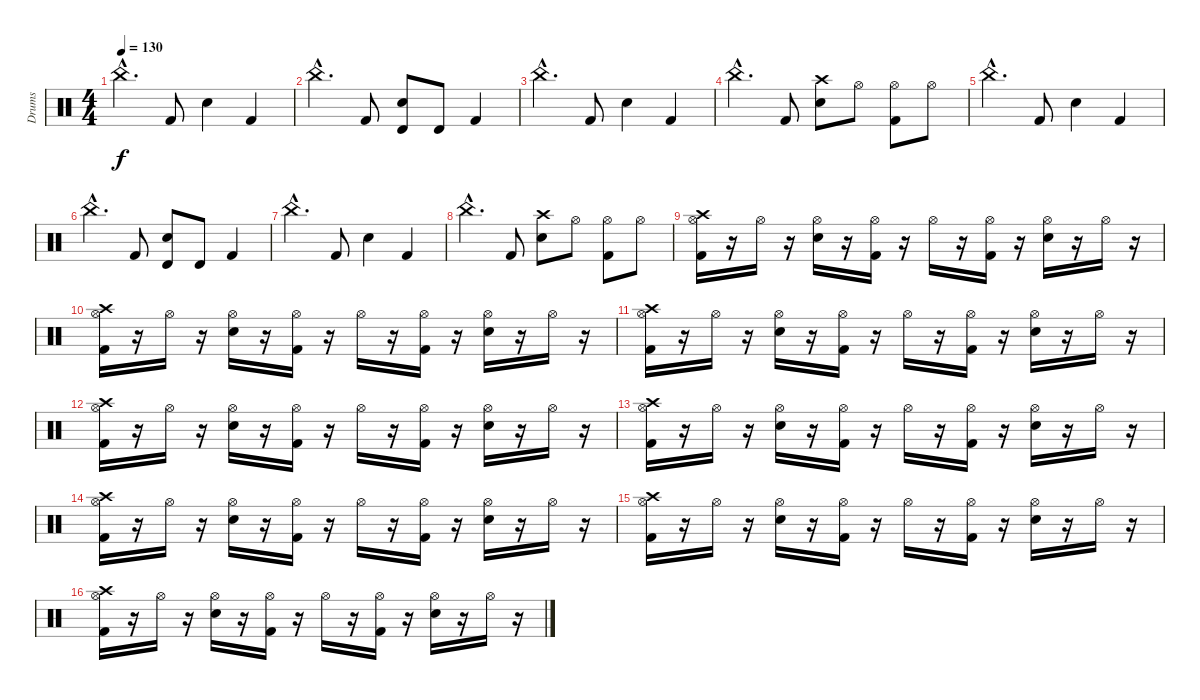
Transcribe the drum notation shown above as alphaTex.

\track ("Drums" "Drums") {instrument percussion}
\staff {score}
\articulation defaults
\ts (4 4)
\tempo 130
\clef neutral
\ks c "China (hit)"{hac}.4{d dy f} "Kick (hit) 2".8 "Snare (hit) 2".4 "Kick (hit) 2".4
|
"China (hit)"{hac}.4{d} "Kick (hit) 2".8 ("Timbale high (hit)" "Snare (hit) 2").8 "Timbale high (hit)".8 "Kick (hit) 2".4 |
"China (hit)"{hac}.4{d} "Kick (hit) 2".8 "Snare (hit) 2".4 "Kick (hit) 2".4 |
"China (hit)"{hac}.4{d} "Kick (hit) 2".8 ("Crash high (hit)" "Snare (hit) 2").8 "Hi-Hat (open)".8 ("Hi-Hat (open)" "Kick (hit) 2").8 "Hi-Hat (open)".8 |
"China (hit)"{hac}.4{d} "Kick (hit) 2".8 "Snare (hit) 2".4 "Kick (hit) 2".4 |
"China (hit)"{hac}.4{d} "Kick (hit) 2".8 ("Timbale high (hit)" "Snare (hit) 2").8 "Timbale high (hit)".8 "Kick (hit) 2".4 |
"China (hit)"{hac}.4{d} "Kick (hit) 2".8 "Snare (hit) 2".4 "Kick (hit) 2".4 |
"China (hit)"{hac}.4{d} "Kick (hit) 2".8 ("Crash high (hit)" "Snare (hit) 2").8 "Hi-Hat (open)".8 ("Hi-Hat (open)" "Kick (hit) 2").8 "Hi-Hat (open)".8 |
("Crash high (hit)" "Hi-Hat (open)" "Kick (hit) 2").16 r.16 "Hi-Hat (open)".16 r.16 ("Hi-Hat (open)" "Snare (hit) 2").16 r.16 ("Hi-Hat (open)" "Kick (hit) 2").16 r.16 "Hi-Hat (open)".16 r.16 ("Hi-Hat (open)" "Kick (hit) 2").16 r.16 ("Hi-Hat (open)" "Snare (hit) 2").16 r.16 "Hi-Hat (open)".16 r.16 |
("Crash high (hit)" "Hi-Hat (open)" "Kick (hit) 2").16 r.16 "Hi-Hat (open)".16 r.16 ("Hi-Hat (open)" "Snare (hit) 2").16 r.16 ("Hi-Hat (open)" "Kick (hit) 2").16 r.16 "Hi-Hat (open)".16 r.16 ("Hi-Hat (open)" "Kick (hit) 2").16 r.16 ("Hi-Hat (open)" "Snare (hit) 2").16 r.16 "Hi-Hat (open)".16 r.16 |
("Crash high (hit)" "Hi-Hat (open)" "Kick (hit) 2").16 r.16 "Hi-Hat (open)".16 r.16 ("Hi-Hat (open)" "Snare (hit) 2").16 r.16 ("Hi-Hat (open)" "Kick (hit) 2").16 r.16 "Hi-Hat (open)".16 r.16 ("Hi-Hat (open)" "Kick (hit) 2").16 r.16 ("Hi-Hat (open)" "Snare (hit) 2").16 r.16 "Hi-Hat (open)".16 r.16 |
("Crash high (hit)" "Hi-Hat (open)" "Kick (hit) 2").16 r.16 "Hi-Hat (open)".16 r.16 ("Hi-Hat (open)" "Snare (hit) 2").16 r.16 ("Hi-Hat (open)" "Kick (hit) 2").16 r.16 "Hi-Hat (open)".16 r.16 ("Hi-Hat (open)" "Kick (hit) 2").16 r.16 ("Hi-Hat (open)" "Snare (hit) 2").16 r.16 "Hi-Hat (open)".16 r.16 |
("Crash high (hit)" "Hi-Hat (open)" "Kick (hit) 2").16 r.16 "Hi-Hat (open)".16 r.16 ("Hi-Hat (open)" "Snare (hit) 2").16 r.16 ("Hi-Hat (open)" "Kick (hit) 2").16 r.16 "Hi-Hat (open)".16 r.16 ("Hi-Hat (open)" "Kick (hit) 2").16 r.16 ("Hi-Hat (open)" "Snare (hit) 2").16 r.16 "Hi-Hat (open)".16 r.16 |
("Crash high (hit)" "Hi-Hat (open)" "Kick (hit) 2").16 r.16 "Hi-Hat (open)".16 r.16 ("Hi-Hat (open)" "Snare (hit) 2").16 r.16 ("Hi-Hat (open)" "Kick (hit) 2").16 r.16 "Hi-Hat (open)".16 r.16 ("Hi-Hat (open)" "Kick (hit) 2").16 r.16 ("Hi-Hat (open)" "Snare (hit) 2").16 r.16 "Hi-Hat (open)".16 r.16 |
("Crash high (hit)" "Hi-Hat (open)" "Kick (hit) 2").16 r.16 "Hi-Hat (open)".16 r.16 ("Hi-Hat (open)" "Snare (hit) 2").16 r.16 ("Hi-Hat (open)" "Kick (hit) 2").16 r.16 "Hi-Hat (open)".16 r.16 ("Hi-Hat (open)" "Kick (hit) 2").16 r.16 ("Hi-Hat (open)" "Snare (hit) 2").16 r.16 "Hi-Hat (open)".16 r.16 |
("Crash high (hit)" "Hi-Hat (open)" "Kick (hit) 2").16 r.16 "Hi-Hat (open)".16 r.16 ("Hi-Hat (open)" "Snare (hit) 2").16 r.16 ("Hi-Hat (open)" "Kick (hit) 2").16 r.16 "Hi-Hat (open)".16 r.16 ("Hi-Hat (open)" "Kick (hit) 2").16 r.16 ("Hi-Hat (open)" "Snare (hit) 2").16 r.16 "Hi-Hat (open)".16 r.16
